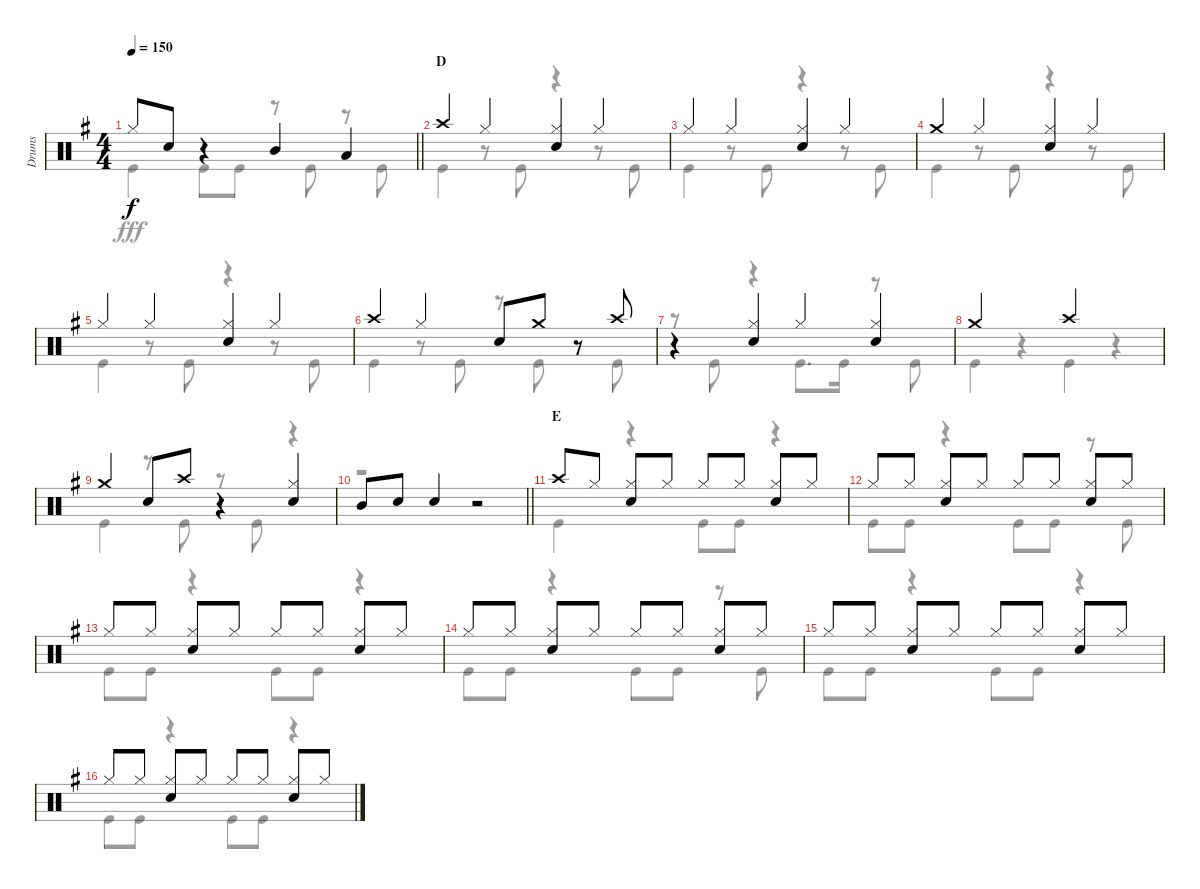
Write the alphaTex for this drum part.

\track ("Drums" "Drums") {instrument percussion}
\staff {score}
\articulation defaults
\voice
\ts (4 4)
\tempo 150
\clef neutral
\barLineRight lightlight
\ks g "Hi-Hat (closed)".8{dy f} "Snare (hit) 2".8
r.4 "Mid Tom (hit)".4 "Low Tom (hit)".4 |
\section ("" "D")
"Crash high (hit)".4 "Hi-Hat (closed)".4 ("Hi-Hat (closed)" "Snare (hit) 2").4 "Hi-Hat (closed)".4 |
"Hi-Hat (closed)".4 "Hi-Hat (closed)".4 ("Hi-Hat (closed)" "Snare (hit) 2").4 "Hi-Hat (closed)".4 |
"Crash medium (hit)".4 "Hi-Hat (closed)".4 ("Hi-Hat (closed)" "Snare (hit) 2").4 "Hi-Hat (closed)".4 |
"Hi-Hat (closed)".4 "Hi-Hat (closed)".4 ("Hi-Hat (closed)" "Snare (hit) 2").4 "Hi-Hat (closed)".4 |
"Crash high (hit)".4 "Hi-Hat (closed)".4 "Snare (hit) 2".8 "Crash medium (hit)".8 r.8 "Crash high (hit)".8 |
r.4 ("Hi-Hat (closed)" "Snare (hit) 2").4 "Hi-Hat (closed)".4 ("Hi-Hat (closed)" "Snare (hit) 2").4 |
"Crash medium (hit)".2 "Crash high (hit)".2 |
"Crash medium (hit)".4 "Snare (hit) 2".8 "Crash high (hit)".8 r.4 ("Hi-Hat (closed)" "Snare (hit) 2").4 |
\barLineRight lightlight "Mid Tom (hit)".8 "Snare (hit) 2".8 "Snare (hit) 2".4
r.2 |
\section ("" "E")
"Crash high (hit)".8 "Hi-Hat (closed)".8 ("Hi-Hat (closed)" "Snare (hit) 2").8 "Hi-Hat (closed)".8 "Hi-Hat (closed)".8 "Hi-Hat (closed)".8 ("Hi-Hat (closed)" "Snare (hit) 2").8 "Hi-Hat (closed)".8 |
"Hi-Hat (closed)".8 "Hi-Hat (closed)".8 ("Hi-Hat (closed)" "Snare (hit) 2").8 "Hi-Hat (closed)".8 "Hi-Hat (closed)".8 "Hi-Hat (closed)".8 ("Hi-Hat (closed)" "Snare (hit) 2").8 "Hi-Hat (closed)".8 |
"Hi-Hat (closed)".8 "Hi-Hat (closed)".8 ("Hi-Hat (closed)" "Snare (hit) 2").8 "Hi-Hat (closed)".8 "Hi-Hat (closed)".8 "Hi-Hat (closed)".8 ("Hi-Hat (closed)" "Snare (hit) 2").8 "Hi-Hat (closed)".8 |
"Hi-Hat (closed)".8 "Hi-Hat (closed)".8 ("Hi-Hat (closed)" "Snare (hit) 2").8 "Hi-Hat (closed)".8 "Hi-Hat (closed)".8 "Hi-Hat (closed)".8 ("Hi-Hat (closed)" "Snare (hit) 2").8 "Hi-Hat (closed)".8 |
"Hi-Hat (closed)".8 "Hi-Hat (closed)".8 ("Hi-Hat (closed)" "Snare (hit) 2").8 "Hi-Hat (closed)".8 "Hi-Hat (closed)".8 "Hi-Hat (closed)".8 ("Hi-Hat (closed)" "Snare (hit) 2").8 "Hi-Hat (closed)".8 |
"Hi-Hat (closed)".8 "Hi-Hat (closed)".8 ("Hi-Hat (closed)" "Snare (hit) 2").8 "Hi-Hat (closed)".8 "Hi-Hat (closed)".8 "Hi-Hat (closed)".8 ("Hi-Hat (closed)" "Snare (hit) 2").8 "Hi-Hat (closed)".8
\voice
\clef neutral
\ottava regular
\simile none
\barLineRight lightlight
\ks g "Kick (hit)".4{dy fff} "Kick (hit)".8 "Kick (hit)".8
r.8 "Kick (hit)".8 r.8 "Kick (hit)".8 |
"Kick (hit)".4 r.8 "Kick (hit)".8 r.4 r.8 "Kick (hit)".8 |
"Kick (hit)".4 r.8 "Kick (hit)".8 r.4 r.8 "Kick (hit)".8 |
"Kick (hit)".4 r.8 "Kick (hit)".8 r.4 r.8 "Kick (hit)".8 |
"Kick (hit)".4 r.8 "Kick (hit)".8 r.4 r.8 "Kick (hit)".8 |
"Kick (hit)".4 r.8 "Kick (hit)".8 r.8 "Kick (hit)".8 r.8 "Kick (hit)".8 |
r.8 "Kick (hit)".8 r.4 "Kick (hit)".8{d} "Kick (hit)".16 r.8 "Kick (hit)".8 |
"Kick (hit)".4 r.4 "Kick (hit)".4 r.4 |
"Kick (hit)".4 r.8 "Kick (hit)".8 r.8 "Kick (hit)".8 r.4 |
\barLineRight lightlight
r.1 |
"Kick (hit)".4 r.4 "Kick (hit)".8 "Kick (hit)".8 r.4 |
"Kick (hit)".8 "Kick (hit)".8 r.4 "Kick (hit)".8 "Kick (hit)".8 r.8 "Kick (hit)".8 |
"Kick (hit)".8 "Kick (hit)".8 r.4 "Kick (hit)".8 "Kick (hit)".8 r.4 |
"Kick (hit)".8 "Kick (hit)".8 r.4 "Kick (hit)".8 "Kick (hit)".8 r.8 "Kick (hit)".8 |
"Kick (hit)".8 "Kick (hit)".8 r.4 "Kick (hit)".8 "Kick (hit)".8 r.4 |
"Kick (hit)".8 "Kick (hit)".8 r.4 "Kick (hit)".8 "Kick (hit)".8 r.4
